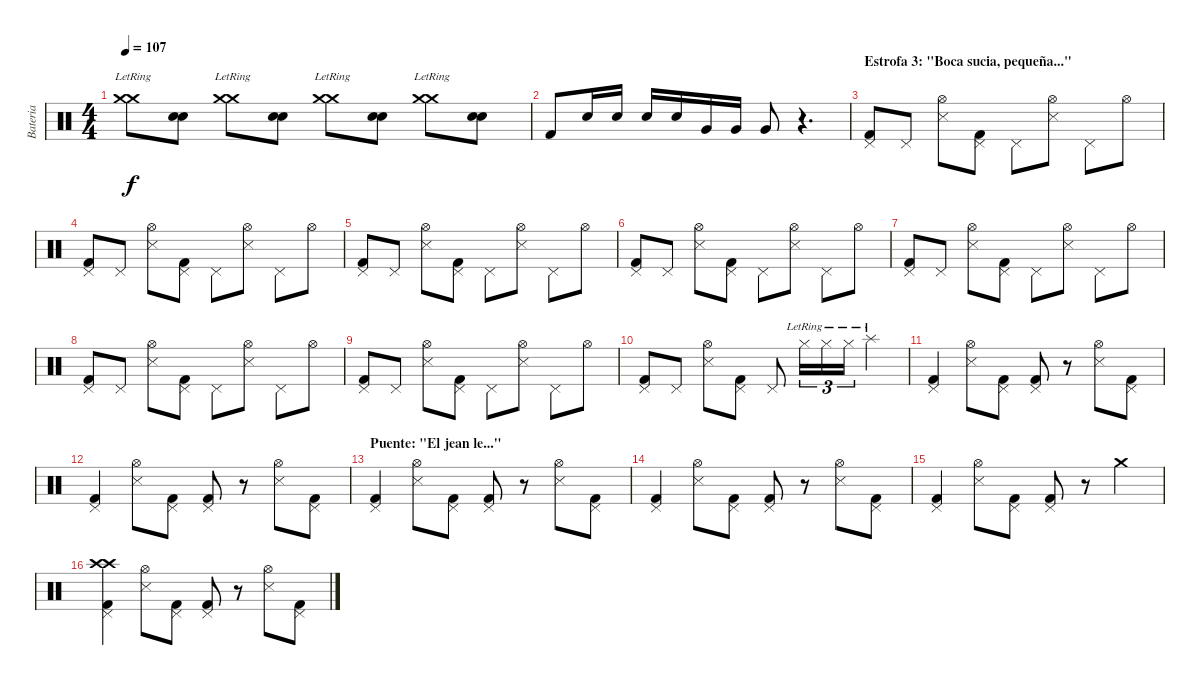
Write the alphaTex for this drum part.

\track ("Bateria" "Bateria") {instrument percussion}
\staff {score}
\articulation defaults
\ts (4 4)
\tempo 107
\clef neutral
\ks c
("Crash medium (hit)"{lr} "Crash medium (hit)"{lr}).8{dy f} ("Snare (hit) 2" "Snare (hit) 2").8 ("Crash medium (hit)"{lr} "Crash medium (hit)"{lr}).8 ("Snare (hit) 2" "Snare (hit) 2").8 ("Crash medium (hit)"{lr} "Crash medium (hit)"{lr}).8 ("Snare (hit) 2" "Snare (hit) 2").8 ("Crash medium (hit)"{lr} "Crash medium (hit)"{lr}).8 ("Snare (hit) 2" "Snare (hit) 2").8 |
"Kick (hit) 2".8 "Snare (hit) 2".16 "Snare (hit) 2".16 "Snare (hit) 2".16 "Snare (hit) 2".16 "Very Low Tom (hit)".16 "Very Low Tom (hit)".16 "Very Low Tom (hit)".8 r.4{d} |
\section ("" "Estrofa 3: \"Boca sucia, pequeña...\"")
("Kick (hit) 2" "Pedal Hi-Hat (hit)").8 "Pedal Hi-Hat (hit)".8 ("Hi-Hat (open)" "Snare (side stick) 3").8 ("Kick (hit) 2" "Pedal Hi-Hat (hit)").8 "Pedal Hi-Hat (hit)".8 ("Snare (side stick) 3" "Hi-Hat (open)").8 "Pedal Hi-Hat (hit)".8 "Hi-Hat (open)".8 |
("Kick (hit) 2" "Pedal Hi-Hat (hit)").8 "Pedal Hi-Hat (hit)".8 ("Hi-Hat (open)" "Snare (side stick) 3").8 ("Kick (hit) 2" "Pedal Hi-Hat (hit)").8 "Pedal Hi-Hat (hit)".8 ("Snare (side stick) 3" "Hi-Hat (open)").8 "Pedal Hi-Hat (hit)".8 "Hi-Hat (open)".8 |
("Kick (hit) 2" "Pedal Hi-Hat (hit)").8 "Pedal Hi-Hat (hit)".8 ("Hi-Hat (open)" "Snare (side stick) 3").8 ("Kick (hit) 2" "Pedal Hi-Hat (hit)").8 "Pedal Hi-Hat (hit)".8 ("Snare (side stick) 3" "Hi-Hat (open)").8 "Pedal Hi-Hat (hit)".8 "Hi-Hat (open)".8 |
("Kick (hit) 2" "Pedal Hi-Hat (hit)").8 "Pedal Hi-Hat (hit)".8 ("Hi-Hat (open)" "Snare (side stick) 3").8 ("Kick (hit) 2" "Pedal Hi-Hat (hit)").8 "Pedal Hi-Hat (hit)".8 ("Snare (side stick) 3" "Hi-Hat (open)").8 "Pedal Hi-Hat (hit)".8 "Hi-Hat (open)".8 |
("Kick (hit) 2" "Pedal Hi-Hat (hit)").8 "Pedal Hi-Hat (hit)".8 ("Hi-Hat (open)" "Snare (side stick) 3").8 ("Kick (hit) 2" "Pedal Hi-Hat (hit)").8 "Pedal Hi-Hat (hit)".8 ("Snare (side stick) 3" "Hi-Hat (open)").8 "Pedal Hi-Hat (hit)".8 "Hi-Hat (open)".8 |
("Kick (hit) 2" "Pedal Hi-Hat (hit)").8 "Pedal Hi-Hat (hit)".8 ("Hi-Hat (open)" "Snare (side stick) 3").8 ("Kick (hit) 2" "Pedal Hi-Hat (hit)").8 "Pedal Hi-Hat (hit)".8 ("Snare (side stick) 3" "Hi-Hat (open)").8 "Pedal Hi-Hat (hit)".8 "Hi-Hat (open)".8 |
("Kick (hit) 2" "Pedal Hi-Hat (hit)").8 "Pedal Hi-Hat (hit)".8 ("Hi-Hat (open)" "Snare (side stick) 3").8 ("Kick (hit) 2" "Pedal Hi-Hat (hit)").8 "Pedal Hi-Hat (hit)".8 ("Snare (side stick) 3" "Hi-Hat (open)").8 "Pedal Hi-Hat (hit)".8 "Hi-Hat (open)".8 |
("Kick (hit) 2" "Pedal Hi-Hat (hit)").8 "Pedal Hi-Hat (hit)".8 ("Hi-Hat (open)" "Snare (side stick) 3").8 ("Kick (hit) 2" "Pedal Hi-Hat (hit)").8 "Pedal Hi-Hat (hit)".8 "Hi-Hat (closed)"{lr}.16{tu (3 2)} "Hi-Hat (closed)"{lr}.16{tu (3 2)} "Hi-Hat (closed)"{lr}.16{tu (3 2)} "Splash (hit)"{lr}.4 |
("Pedal Hi-Hat (hit)" "Kick (hit) 2").4 ("Hi-Hat (open)" "Snare (side stick) 3").8 ("Pedal Hi-Hat (hit)" "Kick (hit) 2").8 ("Pedal Hi-Hat (hit)" "Kick (hit) 2").8 r.8 ("Hi-Hat (open)" "Snare (side stick) 3").8 ("Pedal Hi-Hat (hit)" "Kick (hit) 2").8 |
("Pedal Hi-Hat (hit)" "Kick (hit) 2").4 ("Hi-Hat (open)" "Snare (side stick) 3").8 ("Pedal Hi-Hat (hit)" "Kick (hit) 2").8 ("Pedal Hi-Hat (hit)" "Kick (hit) 2").8 r.8 ("Hi-Hat (open)" "Snare (side stick) 3").8 ("Pedal Hi-Hat (hit)" "Kick (hit) 2").8 |
\section ("" "Puente: \"El jean le...\"")
("Pedal Hi-Hat (hit)" "Kick (hit) 2").4 ("Hi-Hat (open)" "Snare (side stick) 3").8 ("Pedal Hi-Hat (hit)" "Kick (hit) 2").8 ("Pedal Hi-Hat (hit)" "Kick (hit) 2").8 r.8 ("Hi-Hat (open)" "Snare (side stick) 3").8 ("Pedal Hi-Hat (hit)" "Kick (hit) 2").8 |
("Pedal Hi-Hat (hit)" "Kick (hit) 2").4 ("Hi-Hat (open)" "Snare (side stick) 3").8 ("Pedal Hi-Hat (hit)" "Kick (hit) 2").8 ("Pedal Hi-Hat (hit)" "Kick (hit) 2").8 r.8 ("Hi-Hat (open)" "Snare (side stick) 3").8 ("Pedal Hi-Hat (hit)" "Kick (hit) 2").8 |
("Pedal Hi-Hat (hit)" "Kick (hit) 2").4 ("Hi-Hat (open)" "Snare (side stick) 3").8 ("Pedal Hi-Hat (hit)" "Kick (hit) 2").8 ("Pedal Hi-Hat (hit)" "Kick (hit) 2").8 r.8 "Crash medium (hit)".4 |
("Pedal Hi-Hat (hit)" "Kick (hit) 2" "Crash high (hit)" "Crash high (hit)").4 ("Hi-Hat (open)" "Snare (side stick) 3").8 ("Pedal Hi-Hat (hit)" "Kick (hit) 2").8 ("Pedal Hi-Hat (hit)" "Kick (hit) 2").8 r.8 ("Hi-Hat (open)" "Snare (side stick) 3").8 ("Pedal Hi-Hat (hit)" "Kick (hit) 2").8
